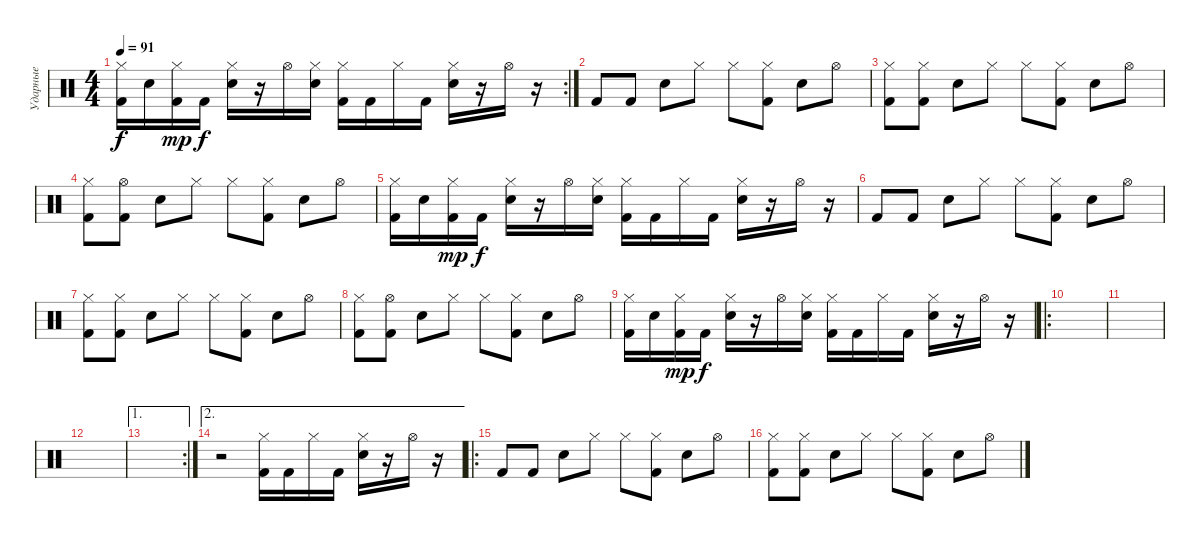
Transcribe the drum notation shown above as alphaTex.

\track ("Ударные" "Ударные") {instrument percussion}
\staff {score}
\articulation defaults
\rc 2
\ts (4 4)
\tempo 91
\clef neutral
\ks c
("Hi-Hat (closed)" "Kick (hit) 2").16{dy f} "Snare (hit) 2".16 ("Hi-Hat (closed)" "Kick (hit) 2").16{dy mp} "Kick (hit) 2".16{dy f} ("Hi-Hat (closed)" "Snare (hit) 2").16 r.16 "Hi-Hat (open)".16 ("Hi-Hat (closed)" "Snare (hit) 2").16 ("Hi-Hat (closed)" "Kick (hit) 2").16 "Kick (hit) 2".16 "Hi-Hat (closed)".16 "Kick (hit) 2".16 ("Hi-Hat (closed)" "Snare (hit) 2").16 r.16 "Hi-Hat (open)".16 r.16 |
"Kick (hit) 2".8 "Kick (hit) 2".8 "Snare (hit) 2".8 "Hi-Hat (closed)".8 "Hi-Hat (closed)".8 ("Hi-Hat (closed)" "Kick (hit) 2").8 "Snare (hit) 2".8 "Hi-Hat (open)".8 |
("Hi-Hat (closed)" "Kick (hit) 2").8 ("Hi-Hat (closed)" "Kick (hit) 2").8 "Snare (hit) 2".8 "Hi-Hat (closed)".8 "Hi-Hat (closed)".8 ("Hi-Hat (closed)" "Kick (hit) 2").8 "Snare (hit) 2".8 "Hi-Hat (open)".8 |
("Hi-Hat (closed)" "Kick (hit) 2").8 ("Hi-Hat (open)" "Kick (hit) 2").8 "Snare (hit) 2".8 "Hi-Hat (closed)".8 "Hi-Hat (closed)".8 ("Hi-Hat (closed)" "Kick (hit) 2").8 "Snare (hit) 2".8 "Hi-Hat (open)".8 |
("Hi-Hat (closed)" "Kick (hit) 2").16 "Snare (hit) 2".16 ("Hi-Hat (closed)" "Kick (hit) 2").16{dy mp} "Kick (hit) 2".16{dy f} ("Hi-Hat (closed)" "Snare (hit) 2").16 r.16 "Hi-Hat (open)".16 ("Hi-Hat (closed)" "Snare (hit) 2").16 ("Hi-Hat (closed)" "Kick (hit) 2").16 "Kick (hit) 2".16 "Hi-Hat (closed)".16 "Kick (hit) 2".16 ("Hi-Hat (closed)" "Snare (hit) 2").16 r.16 "Hi-Hat (open)".16 r.16 |
"Kick (hit) 2".8 "Kick (hit) 2".8 "Snare (hit) 2".8 "Hi-Hat (closed)".8 "Hi-Hat (closed)".8 ("Hi-Hat (closed)" "Kick (hit) 2").8 "Snare (hit) 2".8 "Hi-Hat (open)".8 |
("Hi-Hat (closed)" "Kick (hit) 2").8 ("Hi-Hat (closed)" "Kick (hit) 2").8 "Snare (hit) 2".8 "Hi-Hat (closed)".8 "Hi-Hat (closed)".8 ("Hi-Hat (closed)" "Kick (hit) 2").8 "Snare (hit) 2".8 "Hi-Hat (open)".8 |
("Hi-Hat (closed)" "Kick (hit) 2").8 ("Hi-Hat (open)" "Kick (hit) 2").8 "Snare (hit) 2".8 "Hi-Hat (closed)".8 "Hi-Hat (closed)".8 ("Hi-Hat (closed)" "Kick (hit) 2").8 "Snare (hit) 2".8 "Hi-Hat (open)".8 |
("Hi-Hat (closed)" "Kick (hit) 2").16 "Snare (hit) 2".16 ("Hi-Hat (closed)" "Kick (hit) 2").16{dy mp} "Kick (hit) 2".16{dy f} ("Hi-Hat (closed)" "Snare (hit) 2").16 r.16 "Hi-Hat (open)".16 ("Hi-Hat (closed)" "Snare (hit) 2").16 ("Hi-Hat (closed)" "Kick (hit) 2").16 "Kick (hit) 2".16 "Hi-Hat (closed)".16 "Kick (hit) 2".16 ("Hi-Hat (closed)" "Snare (hit) 2").16 r.16 "Hi-Hat (open)".16 r.16 |
\ro
|
|
|
\ae 1
\rc 2
|
\ae 2
r.2 ("Hi-Hat (closed)" "Kick (hit) 2").16 "Kick (hit) 2".16 "Hi-Hat (closed)".16 "Kick (hit) 2".16 ("Hi-Hat (closed)" "Snare (hit) 2").16 r.16 "Hi-Hat (open)".16 r.16 |
\ro "Kick (hit) 2".8 "Kick (hit) 2".8 "Snare (hit) 2".8 "Hi-Hat (closed)".8 "Hi-Hat (closed)".8
("Hi-Hat (closed)" "Kick (hit) 2").8 "Snare (hit) 2".8 "Hi-Hat (open)".8 |
("Hi-Hat (closed)" "Kick (hit) 2").8 ("Hi-Hat (closed)" "Kick (hit) 2").8 "Snare (hit) 2".8 "Hi-Hat (closed)".8 "Hi-Hat (closed)".8 ("Hi-Hat (closed)" "Kick (hit) 2").8 "Snare (hit) 2".8 "Hi-Hat (open)".8
